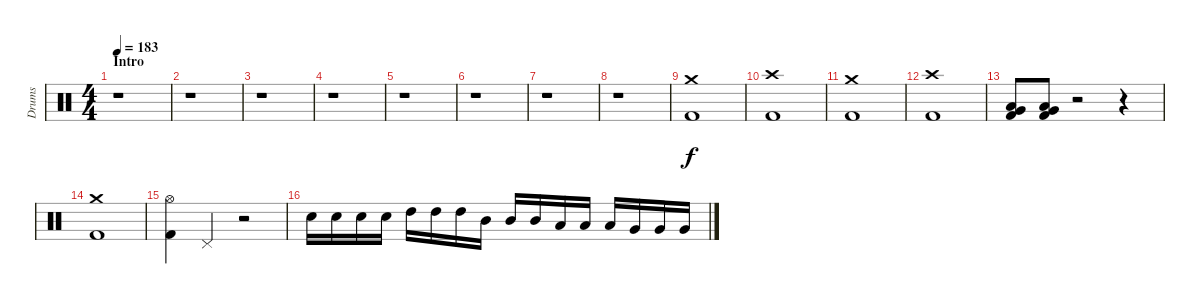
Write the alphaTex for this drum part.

\track ("Drums" "Drums") {instrument percussion}
\staff {score}
\articulation defaults
\ts (4 4)
\section ("" "Intro")
\tempo 183
\clef neutral
\ks c
r.1{dy f} |
r.1 |
r.1 |
r.1 |
r.1 |
r.1 |
r.1 |
r.1 |
("Kick (hit) 2" "Crash medium (hit)").1 |
("Kick (hit) 2" "Crash high (hit)").1 |
("Kick (hit) 2" "Crash medium (hit)").1 |
("Kick (hit) 2" "Crash high (hit)").1 |
("Kick (hit) 2" "Low Tom (hit)" "Very Low Tom (hit)").8 ("Kick (hit) 2" "Low Tom (hit)" "Very Low Tom (hit)").8 r.2 r.4 |
("Kick (hit) 2" "Crash medium (hit)").1 |
("Kick (hit) 2" "Hi-Hat (open)").4 "Pedal Hi-Hat (hit)".4 r.2 |
"Electric Snare (hit)".16 "Electric Snare (hit)".16 "Electric Snare (hit)".16 "Electric Snare (hit)".16 "High Tom (hit)".16 "High Tom (hit)".16 "High Tom (hit)".16 "Mid Tom (hit)".16 "Mid Tom (hit)".16 "Mid Tom (hit)".16 "Low Tom (hit)".16 "Low Tom (hit)".16 "Low Tom (hit)".16 "Very Low Tom (hit)".16 "Very Low Tom (hit)".16 "Very Low Tom (hit)".16
